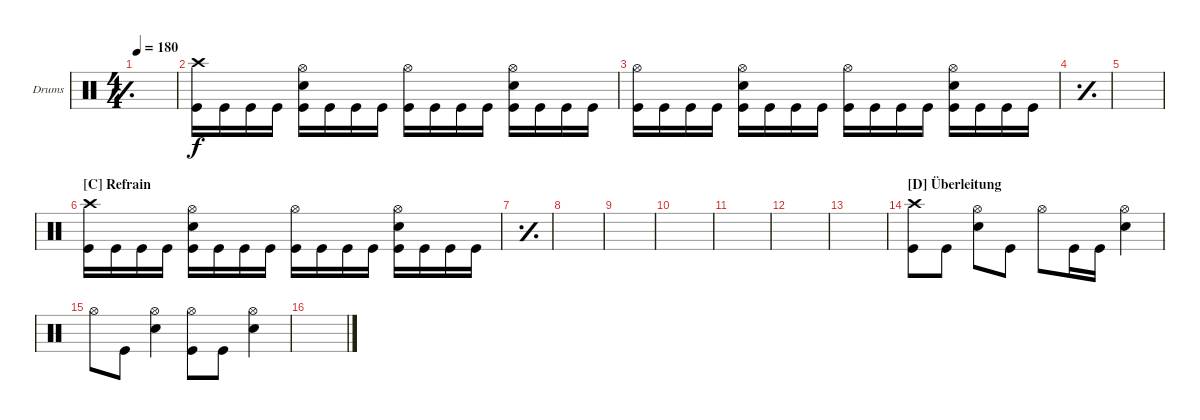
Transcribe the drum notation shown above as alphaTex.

\defaultSystemsLayout 4
\bracketExtendMode groupsimilarinstruments
\firstSystemTrackNameOrientation horizontal
\otherSystemsTrackNameOrientation horizontal
\track ("Drumkit" "Drums") {instrument percussion}
\staff {score}
\articulation defaults
\ts (4 4)
\tempo 180
\clef neutral
\simile simple
\ks c
|
("Kick (hit)" "Crash high (hit)").16 "Kick (hit)".16 "Kick (hit)".16 "Kick (hit)".16 ("Kick (hit)" "Snare (hit) 2" "Hi-Hat (open)").16 "Kick (hit)".16 "Kick (hit)".16 "Kick (hit)".16 ("Kick (hit)" "Hi-Hat (open)").16 "Kick (hit)".16 "Kick (hit)".16 "Kick (hit)".16 ("Kick (hit)" "Snare (hit) 2" "Hi-Hat (open)").16 "Kick (hit)".16 "Kick (hit)".16 "Kick (hit)".16 |
("Kick (hit)" "Hi-Hat (open)").16 "Kick (hit)".16 "Kick (hit)".16 "Kick (hit)".16 ("Kick (hit)" "Snare (hit) 2" "Hi-Hat (open)").16 "Kick (hit)".16 "Kick (hit)".16 "Kick (hit)".16 ("Kick (hit)" "Hi-Hat (open)").16 "Kick (hit)".16 "Kick (hit)".16 "Kick (hit)".16 ("Kick (hit)" "Snare (hit) 2" "Hi-Hat (open)").16 "Kick (hit)".16 "Kick (hit)".16 "Kick (hit)".16 |
\simile simple
|
|
\section ("C" "Refrain")
\simile none
("Kick (hit)" "Crash high (hit)").16 "Kick (hit)".16 "Kick (hit)".16 "Kick (hit)".16 ("Kick (hit)" "Snare (hit) 2" "Hi-Hat (open)").16 "Kick (hit)".16 "Kick (hit)".16 "Kick (hit)".16 ("Kick (hit)" "Hi-Hat (open)").16 "Kick (hit)".16 "Kick (hit)".16 "Kick (hit)".16 ("Kick (hit)" "Snare (hit) 2" "Hi-Hat (open)").16 "Kick (hit)".16 "Kick (hit)".16 "Kick (hit)".16 |
\simile simple
|
|
|
|
|
|
|
\section ("D" "Überleitung")
\simile none
("Kick (hit)" "Crash high (hit)").8 "Kick (hit)".8 ("Hi-Hat (open)" "Snare (hit) 2").8 "Kick (hit)".8 "Hi-Hat (open)".8 "Kick (hit)".16 "Kick (hit)".16 ("Hi-Hat (open)" "Snare (hit) 2").4 |
"Hi-Hat (open)".8 "Kick (hit)".8 ("Hi-Hat (open)" "Snare (hit) 2").4 ("Hi-Hat (open)" "Kick (hit)").8 "Kick (hit)".8 ("Hi-Hat (open)" "Snare (hit) 2").4 |
\simile firstofdouble
